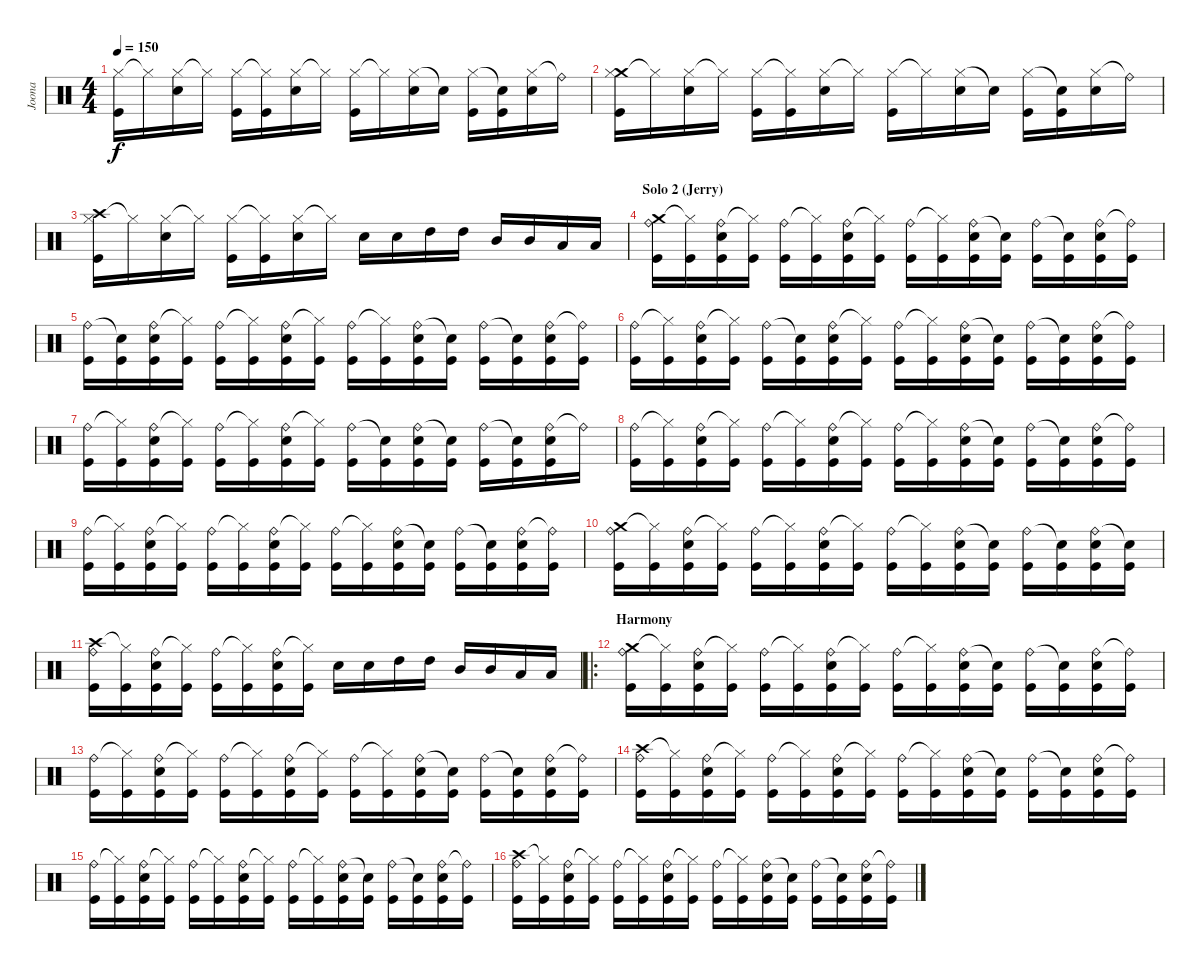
\track ("Joona" "Joona") {instrument percussion}
\staff {score}
\articulation defaults
\ts (4 4)
\tempo 150
\clef neutral
\ks c
("Hi-Hat (closed)" "Kick (hit)").16{dy f} "Hi-Hat (closed)"{t}.16 ("Hi-Hat (closed)" "Snare (hit) 2").16 "Hi-Hat (closed)"{t}.16 ("Hi-Hat (closed)" "Kick (hit)").16 ("Hi-Hat (closed)"{t} "Kick (hit)").16 ("Hi-Hat (closed)" "Snare (hit) 2").16 "Hi-Hat (closed)"{t}.16 ("Hi-Hat (closed)" "Kick (hit)").16 "Hi-Hat (closed)"{t}.16 ("Hi-Hat (closed)" "Snare (hit) 2").16 "Snare (hit)"{t}.16 ("Hi-Hat (closed)" "Kick (hit)").16 ("Snare (hit)"{t} "Kick (hit)").16 ("Hi-Hat (closed)" "Snare (hit) 2").16 "Ride (bell)"{t}.16 |
("Crash medium (hit)" "Hi-Hat (closed)" "Kick (hit)").16 "Hi-Hat (closed)"{t}.16 ("Hi-Hat (closed)" "Snare (hit) 2").16 "Hi-Hat (closed)"{t}.16 ("Hi-Hat (closed)" "Kick (hit)").16 ("Hi-Hat (closed)"{t} "Kick (hit)").16 ("Hi-Hat (closed)" "Snare (hit) 2").16 "Hi-Hat (closed)"{t}.16 ("Hi-Hat (closed)" "Kick (hit)").16 "Hi-Hat (closed)"{t}.16 ("Hi-Hat (closed)" "Snare (hit) 2").16 "Snare (hit)"{t}.16 ("Hi-Hat (closed)" "Kick (hit)").16 ("Snare (hit)"{t} "Kick (hit)").16 ("Hi-Hat (closed)" "Snare (hit) 2").16 "Ride (bell)"{t}.16 |
("Crash high (hit)" "Hi-Hat (closed)" "Kick (hit)").16 "Hi-Hat (closed)"{t}.16 ("Hi-Hat (closed)" "Snare (hit) 2").16 "Hi-Hat (closed)"{t}.16 ("Hi-Hat (closed)" "Kick (hit)").16 ("Hi-Hat (closed)"{t} "Kick (hit)").16 ("Hi-Hat (closed)" "Snare (hit) 2").16 "Hi-Hat (closed)"{t}.16 "Snare (hit) 2".16 "Snare (hit) 2".16 "High Tom (hit)".16 "High Tom (hit)".16 "Mid Tom (hit)".16 "Mid Tom (hit)".16 "Low Tom (hit)".16 "Low Tom (hit)".16 |
\section ("" "Solo 2 (Jerry)")
("Crash medium (hit)" "Ride (bell)" "Kick (hit)").16 ("Hi-Hat (closed)"{t} "Kick (hit)").16 ("Ride (bell)" "Snare (hit) 2" "Kick (hit)").16 ("Hi-Hat (closed)"{t} "Kick (hit)").16 ("Ride (bell)" "Kick (hit)").16 ("Hi-Hat (closed)"{t} "Kick (hit)").16 ("Ride (bell)" "Snare (hit) 2" "Kick (hit)").16 ("Hi-Hat (closed)"{t} "Kick (hit)").16 ("Ride (bell)" "Kick (hit)").16 ("Hi-Hat (closed)"{t} "Kick (hit)").16 ("Ride (bell)" "Snare (hit) 2" "Kick (hit)").16 ("Snare (hit)"{t} "Kick (hit)").16 ("Ride (bell)" "Kick (hit)").16 ("Snare (hit)"{t} "Kick (hit)").16 ("Ride (bell)" "Snare (hit) 2" "Kick (hit)").16 ("Ride (bell)"{t} "Kick (hit)").16 |
("Ride (bell)" "Kick (hit)").16 ("Snare (hit)"{t} "Kick (hit)").16 ("Ride (bell)" "Snare (hit) 2" "Kick (hit)").16 ("Hi-Hat (closed)"{t} "Kick (hit)").16 ("Ride (bell)" "Kick (hit)").16 ("Hi-Hat (closed)"{t} "Kick (hit)").16 ("Ride (bell)" "Snare (hit) 2" "Kick (hit)").16 ("Hi-Hat (closed)"{t} "Kick (hit)").16 ("Ride (bell)" "Kick (hit)").16 ("Hi-Hat (closed)"{t} "Kick (hit)").16 ("Ride (bell)" "Snare (hit) 2" "Kick (hit)").16 ("Snare (hit)"{t} "Kick (hit)").16 ("Ride (bell)" "Kick (hit)").16 ("Snare (hit)"{t} "Kick (hit)").16 ("Ride (bell)" "Snare (hit) 2" "Kick (hit)").16 ("Ride (bell)"{t} "Kick (hit)").16 |
("Ride (bell)" "Kick (hit)").16 ("Hi-Hat (closed)"{t} "Kick (hit)").16 ("Ride (bell)" "Snare (hit) 2" "Kick (hit)").16 ("Hi-Hat (closed)"{t} "Kick (hit)").16 ("Ride (bell)" "Kick (hit)").16 ("Snare (hit)"{t} "Kick (hit)").16 ("Ride (bell)" "Snare (hit) 2" "Kick (hit)").16 ("Hi-Hat (closed)"{t} "Kick (hit)").16 ("Ride (bell)" "Kick (hit)").16 ("Hi-Hat (closed)"{t} "Kick (hit)").16 ("Ride (bell)" "Snare (hit) 2" "Kick (hit)").16 ("Snare (hit)"{t} "Kick (hit)").16 ("Ride (bell)" "Kick (hit)").16 ("Snare (hit)"{t} "Kick (hit)").16 ("Ride (bell)" "Snare (hit) 2" "Kick (hit)").16 ("Ride (bell)"{t} "Kick (hit)").16 |
("Ride (bell)" "Kick (hit)").16 ("Hi-Hat (closed)"{t} "Kick (hit)").16 ("Ride (bell)" "Snare (hit) 2" "Kick (hit)").16 ("Hi-Hat (closed)"{t} "Kick (hit)").16 ("Ride (bell)" "Kick (hit)").16 ("Hi-Hat (closed)"{t} "Kick (hit)").16 ("Ride (bell)" "Snare (hit) 2" "Kick (hit)").16 ("Hi-Hat (closed)"{t} "Kick (hit)").16 ("Ride (bell)" "Kick (hit)").16 ("Snare (hit)"{t} "Kick (hit)").16 ("Ride (bell)" "Snare (hit) 2" "Kick (hit)").16 ("Snare (hit)"{t} "Kick (hit)").16 ("Ride (bell)" "Kick (hit)").16 ("Snare (hit)"{t} "Kick (hit)").16 ("Ride (bell)" "Snare (hit) 2" "Kick (hit)").16 "Ride (bell)"{t}.16 |
("Ride (bell)" "Kick (hit)").16 ("Hi-Hat (closed)"{t} "Kick (hit)").16 ("Ride (bell)" "Snare (hit) 2" "Kick (hit)").16 ("Hi-Hat (closed)"{t} "Kick (hit)").16 ("Ride (bell)" "Kick (hit)").16 ("Hi-Hat (closed)"{t} "Kick (hit)").16 ("Ride (bell)" "Snare (hit) 2" "Kick (hit)").16 ("Hi-Hat (closed)"{t} "Kick (hit)").16 ("Ride (bell)" "Kick (hit)").16 ("Hi-Hat (closed)"{t} "Kick (hit)").16 ("Ride (bell)" "Snare (hit) 2" "Kick (hit)").16 ("Snare (hit)"{t} "Kick (hit)").16 ("Ride (bell)" "Kick (hit)").16 ("Snare (hit)"{t} "Kick (hit)").16 ("Ride (bell)" "Snare (hit) 2" "Kick (hit)").16 ("Ride (bell)"{t} "Kick (hit)").16 |
("Ride (bell)" "Kick (hit)").16 ("Hi-Hat (closed)"{t} "Kick (hit)").16 ("Ride (bell)" "Snare (hit) 2" "Kick (hit)").16 ("Hi-Hat (closed)"{t} "Kick (hit)").16 ("Ride (bell)" "Kick (hit)").16 ("Hi-Hat (closed)"{t} "Kick (hit)").16 ("Ride (bell)" "Snare (hit) 2" "Kick (hit)").16 ("Hi-Hat (closed)"{t} "Kick (hit)").16 ("Ride (bell)" "Kick (hit)").16 ("Hi-Hat (closed)"{t} "Kick (hit)").16 ("Ride (bell)" "Snare (hit) 2" "Kick (hit)").16 ("Snare (hit)"{t} "Kick (hit)").16 ("Ride (bell)" "Kick (hit)").16 ("Snare (hit)"{t} "Kick (hit)").16 ("Ride (bell)" "Snare (hit) 2" "Kick (hit)").16 ("Ride (bell)"{t} "Kick (hit)").16 |
("Crash medium (hit)" "Ride (bell)" "Kick (hit)").16 ("Hi-Hat (closed)"{t} "Kick (hit)").16 ("Ride (bell)" "Snare (hit) 2" "Kick (hit)").16 ("Hi-Hat (closed)"{t} "Kick (hit)").16 ("Ride (bell)" "Kick (hit)").16 ("Hi-Hat (closed)"{t} "Kick (hit)").16 ("Ride (bell)" "Snare (hit) 2" "Kick (hit)").16 ("Hi-Hat (closed)"{t} "Kick (hit)").16 ("Ride (bell)" "Kick (hit)").16 ("Hi-Hat (closed)"{t} "Kick (hit)").16 ("Ride (bell)" "Snare (hit) 2" "Kick (hit)").16 ("Snare (hit)"{t} "Kick (hit)").16 ("Ride (bell)" "Kick (hit)").16 ("Snare (hit)"{t} "Kick (hit)").16 ("Ride (bell)" "Snare (hit) 2" "Kick (hit)").16 ("Snare (hit)"{t} "Kick (hit)").16 |
("Crash high (hit)" "Ride (bell)" "Kick (hit)").16 ("Hi-Hat (closed)"{t} "Kick (hit)").16 ("Ride (bell)" "Snare (hit) 2" "Kick (hit)").16 ("Hi-Hat (closed)"{t} "Kick (hit)").16 ("Ride (bell)" "Kick (hit)").16 ("Hi-Hat (closed)"{t} "Kick (hit)").16 ("Ride (bell)" "Snare (hit) 2" "Kick (hit)").16 ("Hi-Hat (closed)"{t} "Kick (hit)").16 "Snare (hit) 2".16 "Snare (hit) 2".16 "High Tom (hit)".16 "High Tom (hit)".16 "Mid Tom (hit)".16 "Mid Tom (hit)".16 "Low Tom (hit)".16 "Low Tom (hit)".16 |
\ro
\section ("" "Harmony")
("Crash medium (hit)" "Ride (bell)" "Kick (hit)").16 ("Hi-Hat (closed)"{t} "Kick (hit)").16 ("Ride (bell)" "Snare (hit) 2" "Kick (hit)").16 ("Hi-Hat (closed)"{t} "Kick (hit)").16 ("Ride (bell)" "Kick (hit)").16 ("Hi-Hat (closed)"{t} "Kick (hit)").16 ("Ride (bell)" "Snare (hit) 2" "Kick (hit)").16 ("Hi-Hat (closed)"{t} "Kick (hit)").16 ("Ride (bell)" "Kick (hit)").16 ("Hi-Hat (closed)"{t} "Kick (hit)").16 ("Ride (bell)" "Snare (hit) 2" "Kick (hit)").16 ("Snare (hit)"{t} "Kick (hit)").16 ("Ride (bell)" "Kick (hit)").16 ("Snare (hit)"{t} "Kick (hit)").16 ("Ride (bell)" "Snare (hit) 2" "Kick (hit)").16 ("Ride (bell)"{t} "Kick (hit)").16 |
("Ride (bell)" "Kick (hit)").16 ("Hi-Hat (closed)"{t} "Kick (hit)").16 ("Ride (bell)" "Snare (hit) 2" "Kick (hit)").16 ("Hi-Hat (closed)"{t} "Kick (hit)").16 ("Ride (bell)" "Kick (hit)").16 ("Hi-Hat (closed)"{t} "Kick (hit)").16 ("Ride (bell)" "Snare (hit) 2" "Kick (hit)").16 ("Hi-Hat (closed)"{t} "Kick (hit)").16 ("Ride (bell)" "Kick (hit)").16 ("Hi-Hat (closed)"{t} "Kick (hit)").16 ("Ride (bell)" "Snare (hit) 2" "Kick (hit)").16 ("Snare (hit)"{t} "Kick (hit)").16 ("Ride (bell)" "Kick (hit)").16 ("Snare (hit)"{t} "Kick (hit)").16 ("Ride (bell)" "Snare (hit) 2" "Kick (hit)").16 ("Ride (bell)"{t} "Kick (hit)").16 |
("Crash high (hit)" "Ride (bell)" "Kick (hit)").16 ("Hi-Hat (closed)"{t} "Kick (hit)").16 ("Ride (bell)" "Snare (hit) 2" "Kick (hit)").16 ("Hi-Hat (closed)"{t} "Kick (hit)").16 ("Ride (bell)" "Kick (hit)").16 ("Hi-Hat (closed)"{t} "Kick (hit)").16 ("Ride (bell)" "Snare (hit) 2" "Kick (hit)").16 ("Hi-Hat (closed)"{t} "Kick (hit)").16 ("Ride (bell)" "Kick (hit)").16 ("Hi-Hat (closed)"{t} "Kick (hit)").16 ("Ride (bell)" "Snare (hit) 2" "Kick (hit)").16 ("Snare (hit)"{t} "Kick (hit)").16 ("Ride (bell)" "Kick (hit)").16 ("Snare (hit)"{t} "Kick (hit)").16 ("Ride (bell)" "Snare (hit) 2" "Kick (hit)").16 ("Ride (bell)"{t} "Kick (hit)").16 |
("Ride (bell)" "Kick (hit)").16 ("Hi-Hat (closed)"{t} "Kick (hit)").16 ("Ride (bell)" "Snare (hit) 2" "Kick (hit)").16 ("Hi-Hat (closed)"{t} "Kick (hit)").16 ("Ride (bell)" "Kick (hit)").16 ("Hi-Hat (closed)"{t} "Kick (hit)").16 ("Ride (bell)" "Snare (hit) 2" "Kick (hit)").16 ("Hi-Hat (closed)"{t} "Kick (hit)").16 ("Ride (bell)" "Kick (hit)").16 ("Hi-Hat (closed)"{t} "Kick (hit)").16 ("Ride (bell)" "Snare (hit) 2" "Kick (hit)").16 ("Snare (hit)"{t} "Kick (hit)").16 ("Ride (bell)" "Kick (hit)").16 ("Snare (hit)"{t} "Kick (hit)").16 ("Ride (bell)" "Snare (hit) 2" "Kick (hit)").16 ("Ride (bell)"{t} "Kick (hit)").16 |
("Crash high (hit)" "Ride (bell)" "Kick (hit)").16 ("Hi-Hat (closed)"{t} "Kick (hit)").16 ("Ride (bell)" "Snare (hit) 2" "Kick (hit)").16 ("Hi-Hat (closed)"{t} "Kick (hit)").16 ("Ride (bell)" "Kick (hit)").16 ("Hi-Hat (closed)"{t} "Kick (hit)").16 ("Ride (bell)" "Snare (hit) 2" "Kick (hit)").16 ("Hi-Hat (closed)"{t} "Kick (hit)").16 ("Ride (bell)" "Kick (hit)").16 ("Hi-Hat (closed)"{t} "Kick (hit)").16 ("Ride (bell)" "Snare (hit) 2" "Kick (hit)").16 ("Snare (hit)"{t} "Kick (hit)").16 ("Ride (bell)" "Kick (hit)").16 ("Snare (hit)"{t} "Kick (hit)").16 ("Ride (bell)" "Snare (hit) 2" "Kick (hit)").16 ("Ride (bell)"{t} "Kick (hit)").16
